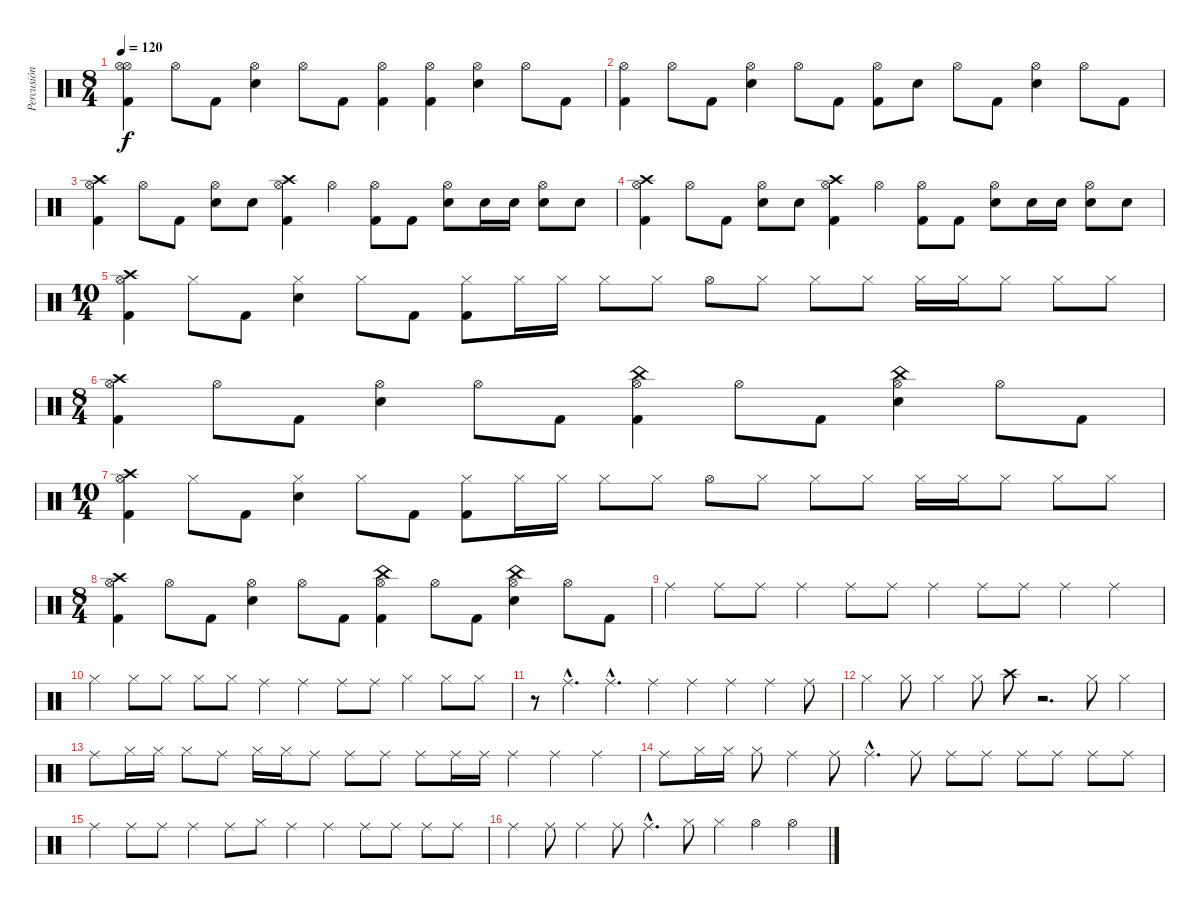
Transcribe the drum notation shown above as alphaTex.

\track ("Percusión" "Percusión") {instrument percussion}
\staff {score}
\articulation defaults
\ts (8 4)
\tempo 120
\clef neutral
\ks c
("Hi-Hat (open)" "Hi-Hat (open)" "Kick (hit) 2").4{dy f} "Hi-Hat (open)".8 "Kick (hit) 2".8 ("Hi-Hat (open)" "Electric Snare (hit)").4 "Hi-Hat (open)".8 "Kick (hit) 2".8 ("Hi-Hat (open)" "Kick (hit) 2").4 ("Hi-Hat (open)" "Kick (hit) 2").4 ("Hi-Hat (open)" "Electric Snare (hit)").4 "Hi-Hat (open)".8 "Kick (hit) 2".8 |
("Hi-Hat (open)" "Kick (hit) 2").4 "Hi-Hat (open)".8 "Kick (hit) 2".8 ("Hi-Hat (open)" "Electric Snare (hit)").4 "Hi-Hat (open)".8 "Kick (hit) 2".8 ("Hi-Hat (open)" "Kick (hit) 2").8 "Electric Snare (hit)".8 "Hi-Hat (open)".8 "Kick (hit) 2".8 ("Hi-Hat (open)" "Electric Snare (hit)").4 "Hi-Hat (open)".8 "Kick (hit) 2".8 |
("Crash high (hit)" "Hi-Hat (open)" "Kick (hit) 2").4 "Hi-Hat (open)".8 "Kick (hit) 2".8 ("Hi-Hat (open)" "Electric Snare (hit)").8 "Electric Snare (hit)".8 ("Crash high (hit)" "Hi-Hat (open)" "Kick (hit) 2").4 "Hi-Hat (open)".4 ("Hi-Hat (open)" "Kick (hit) 2").8 "Kick (hit) 2".8 ("Hi-Hat (open)" "Electric Snare (hit)").8 "Electric Snare (hit)".16 "Electric Snare (hit)".16 ("Hi-Hat (open)" "Electric Snare (hit)").8 "Electric Snare (hit)".8 |
("Crash high (hit)" "Hi-Hat (open)" "Kick (hit) 2").4 "Hi-Hat (open)".8 "Kick (hit) 2".8 ("Hi-Hat (open)" "Electric Snare (hit)").8 "Electric Snare (hit)".8 ("Crash high (hit)" "Hi-Hat (open)" "Kick (hit) 2").4 "Hi-Hat (open)".4 ("Hi-Hat (open)" "Kick (hit) 2").8 "Kick (hit) 2".8 ("Hi-Hat (open)" "Electric Snare (hit)").8 "Electric Snare (hit)".16 "Electric Snare (hit)".16 ("Hi-Hat (open)" "Electric Snare (hit)").8 "Electric Snare (hit)".8 |
\ts (10 4)
("Crash high (hit)" "Hi-Hat (open)" "Kick (hit) 2").4 "Hi-Hat (closed)".8 "Kick (hit) 2".8 ("Hi-Hat (closed)" "Electric Snare (hit)").4 "Hi-Hat (closed)".8 "Kick (hit) 2".8 ("Hi-Hat (closed)" "Kick (hit) 2").8 "Hi-Hat (closed)".16 "Hi-Hat (closed)".16 "Hi-Hat (closed)".8 "Hi-Hat (closed)".8 "Hi-Hat (open)".8 "Hi-Hat (closed)".8 "Hi-Hat (closed)".8 "Hi-Hat (closed)".8 "Hi-Hat (closed)".16 "Hi-Hat (closed)".16 "Hi-Hat (closed)".8 "Hi-Hat (closed)".8 "Hi-Hat (closed)".8 |
\ts (8 4)
("Crash high (hit)" "Hi-Hat (open)" "Kick (hit) 2").4 "Hi-Hat (open)".8 "Kick (hit) 2".8 ("Hi-Hat (open)" "Electric Snare (hit)").4 "Hi-Hat (open)".8 "Kick (hit) 2".8 ("China (hit)" "Hi-Hat (open)" "Kick (hit) 2").4 "Hi-Hat (open)".8 "Kick (hit) 2".8 ("China (hit)" "Hi-Hat (open)" "Electric Snare (hit)").4 "Hi-Hat (open)".8 "Kick (hit) 2".8 |
\ts (10 4)
("Crash high (hit)" "Hi-Hat (open)" "Kick (hit) 2").4 "Hi-Hat (closed)".8 "Kick (hit) 2".8 ("Hi-Hat (closed)" "Electric Snare (hit)").4 "Hi-Hat (closed)".8 "Kick (hit) 2".8 ("Hi-Hat (closed)" "Kick (hit) 2").8 "Hi-Hat (closed)".16 "Hi-Hat (closed)".16 "Hi-Hat (closed)".8 "Hi-Hat (closed)".8 "Hi-Hat (open)".8 "Hi-Hat (closed)".8 "Hi-Hat (closed)".8 "Hi-Hat (closed)".8 "Hi-Hat (closed)".16 "Hi-Hat (closed)".16 "Hi-Hat (closed)".8 "Hi-Hat (closed)".8 "Hi-Hat (closed)".8 |
\ts (8 4)
("Crash high (hit)" "Hi-Hat (open)" "Kick (hit) 2").4 "Hi-Hat (open)".8 "Kick (hit) 2".8 ("Hi-Hat (open)" "Electric Snare (hit)").4 "Hi-Hat (open)".8 "Kick (hit) 2".8 ("China (hit)" "Hi-Hat (open)" "Kick (hit) 2").4 "Hi-Hat (open)".8 "Kick (hit) 2".8 ("China (hit)" "Hi-Hat (open)" "Electric Snare (hit)").4 "Hi-Hat (open)".8 "Kick (hit) 2".8 |
"Ride (middle)".4{volume 9} "Ride (middle)".8 "Ride (middle)".8 "Ride (middle)".4 "Ride (middle)".8 "Ride (middle)".8 "Ride (middle)".4 "Ride (middle)".8 "Ride (middle)".8 "Ride (middle)".4 "Ride (middle)".4 |
"Hi-Hat (closed)".4 "Hi-Hat (closed)".8 "Hi-Hat (closed)".8 "Hi-Hat (closed)".8 "Hi-Hat (closed)".8 "Ride (middle)".4 "Ride (middle)".4 "Ride (middle)".8 "Ride (middle)".8 "Hi-Hat (closed)".4 "Hi-Hat (closed)".8 "Hi-Hat (closed)".8 |
r.8 "Ride (middle)"{hac}.4{d} "Ride (middle)"{hac}.4{d} "Ride (middle)".4 "Ride (middle)".4 "Ride (middle)".4 "Ride (middle)".4 "Ride (middle)".8 |
"Hi-Hat (closed)".4 "Hi-Hat (closed)".8 "Hi-Hat (closed)".4 "Hi-Hat (closed)".8 "Crash high (hit)".8 r.2{d} "Hi-Hat (closed)".8 "Hi-Hat (closed)".4 |
"Ride (middle)".8 "Hi-Hat (closed)".16 "Hi-Hat (closed)".16 "Hi-Hat (closed)".8 "Ride (middle)".8 "Hi-Hat (closed)".16 "Hi-Hat (closed)".16 "Ride (middle)".8 "Ride (middle)".8 "Ride (middle)".8 "Ride (middle)".8 "Ride (middle)".16 "Ride (middle)".16 "Ride (middle)".4 "Ride (middle)".4 "Ride (middle)".4 |
"Ride (middle)".8 "Hi-Hat (closed)".16 "Hi-Hat (closed)".16 "Hi-Hat (closed)".8 "Ride (middle)".4 "Ride (middle)".8 "Ride (middle)"{hac}.4{d} "Ride (middle)".8 "Ride (middle)".8 "Ride (middle)".8 "Ride (middle)".8 "Ride (middle)".8 "Ride (middle)".8 "Ride (middle)".8 |
"Ride (middle)".4 "Ride (middle)".8 "Ride (middle)".8 "Ride (middle)".4 "Ride (middle)".8 "Hi-Hat (closed)".8 "Ride (middle)".4 "Ride (middle)".4 "Ride (middle)".8 "Ride (middle)".8 "Ride (middle)".8 "Ride (middle)".8 |
"Ride (middle)".4 "Ride (middle)".8 "Ride (middle)".4 "Ride (middle)".8 "Ride (middle)"{hac}.4{d} "Hi-Hat (closed)".8{volume 13} "Hi-Hat (closed)".4 "Hi-Hat (open)".4 "Hi-Hat (open)".4
